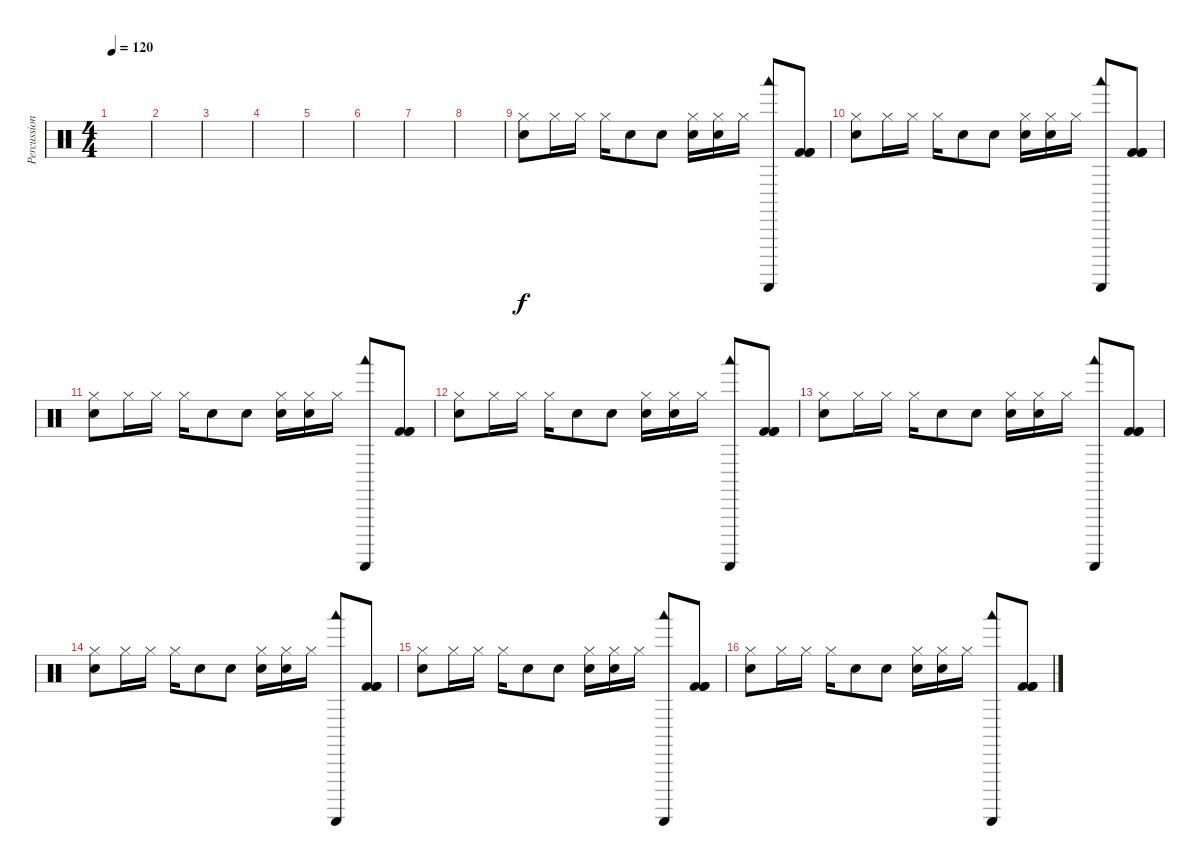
\track ("Percussions" "Percussion") {instrument percussion}
\staff {score}
\articulation defaults
\ts (4 4)
\tempo 120
\clef neutral
\ks c
|
|
|
|
|
|
|
|
("Electric Snare (hit)" "Hi-Hat (closed)").8 "Hi-Hat (closed)".16 "Hi-Hat (closed)".16 "Hi-Hat (closed)".16 "Snare (hit)"{x}.8 "Snare (hit)"{x}.8 ("Snare (hit)"{x} "Hi-Hat (closed)").16 ("Snare (hit)"{x} "Hi-Hat (closed)").16 "Hi-Hat (closed)".16 ("Woodblock low (hit)" "Guiro (scrap-return)").8 ("Kick (hit) 2" "Kick (hit) 2" "Kick (hit) 2").8 |
("Electric Snare (hit)" "Hi-Hat (closed)").8 "Hi-Hat (closed)".16 "Hi-Hat (closed)".16 "Hi-Hat (closed)".16 "Snare (hit)"{x}.8 "Snare (hit)"{x}.8 ("Snare (hit)"{x} "Hi-Hat (closed)").16 ("Snare (hit)"{x} "Hi-Hat (closed)").16 "Hi-Hat (closed)".16 ("Woodblock low (hit)" "Guiro (scrap-return)").8 ("Kick (hit) 2" "Kick (hit) 2" "Kick (hit) 2").8 |
("Electric Snare (hit)" "Hi-Hat (closed)").8 "Hi-Hat (closed)".16 "Hi-Hat (closed)".16 "Hi-Hat (closed)".16 "Snare (hit)"{x}.8 "Snare (hit)"{x}.8 ("Snare (hit)"{x} "Hi-Hat (closed)").16 ("Snare (hit)"{x} "Hi-Hat (closed)").16 "Hi-Hat (closed)".16 ("Woodblock low (hit)" "Guiro (scrap-return)").8 ("Kick (hit) 2" "Kick (hit) 2" "Kick (hit) 2").8 |
("Electric Snare (hit)" "Hi-Hat (closed)").8 "Hi-Hat (closed)".16 "Hi-Hat (closed)".16 "Hi-Hat (closed)".16 "Snare (hit)"{x}.8 "Snare (hit)"{x}.8 ("Snare (hit)"{x} "Hi-Hat (closed)").16 ("Snare (hit)"{x} "Hi-Hat (closed)").16 "Hi-Hat (closed)".16 ("Woodblock low (hit)" "Guiro (scrap-return)").8 ("Kick (hit) 2" "Kick (hit) 2" "Kick (hit) 2").8 |
("Electric Snare (hit)" "Hi-Hat (closed)").8 "Hi-Hat (closed)".16 "Hi-Hat (closed)".16 "Hi-Hat (closed)".16 "Snare (hit)"{x}.8 "Snare (hit)"{x}.8 ("Snare (hit)"{x} "Hi-Hat (closed)").16 ("Snare (hit)"{x} "Hi-Hat (closed)").16 "Hi-Hat (closed)".16 ("Woodblock low (hit)" "Guiro (scrap-return)").8 ("Kick (hit) 2" "Kick (hit) 2" "Kick (hit) 2").8 |
("Electric Snare (hit)" "Hi-Hat (closed)").8 "Hi-Hat (closed)".16 "Hi-Hat (closed)".16 "Hi-Hat (closed)".16 "Snare (hit)"{x}.8 "Snare (hit)"{x}.8 ("Snare (hit)"{x} "Hi-Hat (closed)").16 ("Snare (hit)"{x} "Hi-Hat (closed)").16 "Hi-Hat (closed)".16 ("Woodblock low (hit)" "Guiro (scrap-return)").8 ("Kick (hit) 2" "Kick (hit) 2" "Kick (hit) 2").8 |
("Electric Snare (hit)" "Hi-Hat (closed)").8 "Hi-Hat (closed)".16 "Hi-Hat (closed)".16 "Hi-Hat (closed)".16 "Snare (hit)"{x}.8 "Snare (hit)"{x}.8 ("Snare (hit)"{x} "Hi-Hat (closed)").16 ("Snare (hit)"{x} "Hi-Hat (closed)").16 "Hi-Hat (closed)".16 ("Woodblock low (hit)" "Guiro (scrap-return)").8 ("Kick (hit) 2" "Kick (hit) 2" "Kick (hit) 2").8 |
("Electric Snare (hit)" "Hi-Hat (closed)").8 "Hi-Hat (closed)".16 "Hi-Hat (closed)".16 "Hi-Hat (closed)".16 "Snare (hit)"{x}.8 "Snare (hit)"{x}.8 ("Snare (hit)"{x} "Hi-Hat (closed)").16 ("Snare (hit)"{x} "Hi-Hat (closed)").16 "Hi-Hat (closed)".16 ("Woodblock low (hit)" "Guiro (scrap-return)").8 ("Kick (hit) 2" "Kick (hit) 2" "Kick (hit) 2").8
